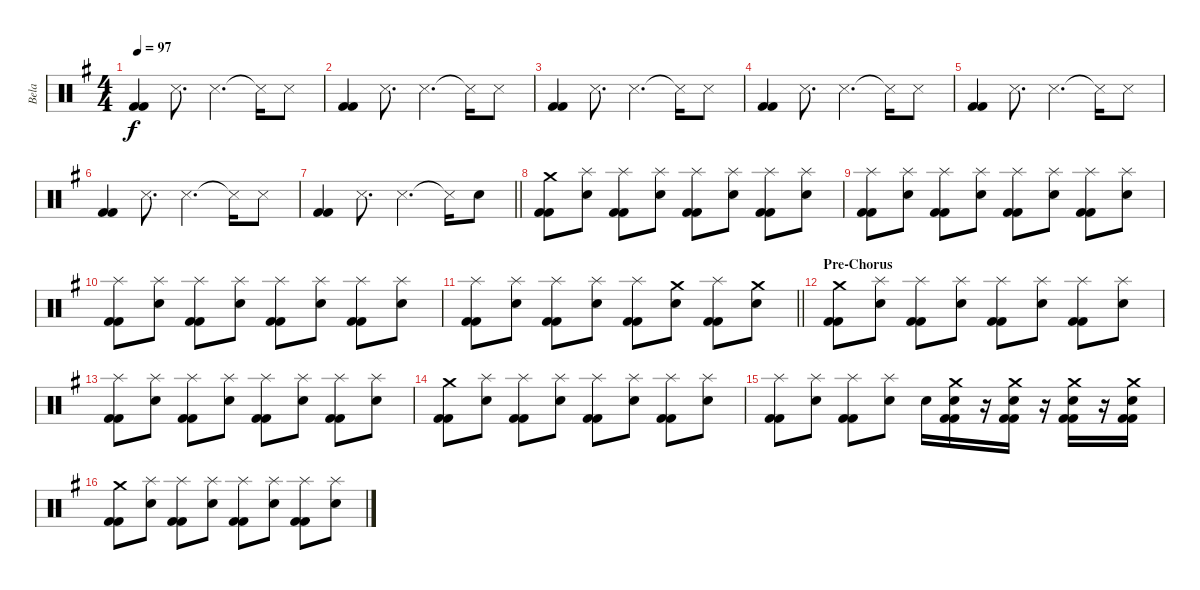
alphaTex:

\track ("Bela" "Bela") {instrument percussion}
\staff {score}
\articulation defaults
\ts (4 4)
\tempo 97
\clef neutral
\ks g
("Kick (hit) 2" "Kick (hit) 2").4{dy f} "Snare (side stick) 3".8{d} "Snare (side stick) 3".4{d} "Snare (side stick) 3"{t}.16 "Snare (side stick) 3".8 |
("Kick (hit) 2" "Kick (hit) 2").4 "Snare (side stick) 3".8{d} "Snare (side stick) 3".4{d} "Snare (side stick) 3"{t}.16 "Snare (side stick) 3".8 |
("Kick (hit) 2" "Kick (hit) 2").4 "Snare (side stick) 3".8{d} "Snare (side stick) 3".4{d} "Snare (side stick) 3"{t}.16 "Snare (side stick) 3".8 |
("Kick (hit) 2" "Kick (hit) 2").4 "Snare (side stick) 3".8{d} "Snare (side stick) 3".4{d} "Snare (side stick) 3"{t}.16 "Snare (side stick) 3".8 |
("Kick (hit) 2" "Kick (hit) 2").4 "Snare (side stick) 3".8{d} "Snare (side stick) 3".4{d} "Snare (side stick) 3"{t}.16 "Snare (side stick) 3".8 |
("Kick (hit) 2" "Kick (hit) 2").4 "Snare (side stick) 3".8{d} "Snare (side stick) 3".4{d} "Snare (side stick) 3"{t}.16 "Snare (side stick) 3".8 |
\barLineRight lightlight
("Kick (hit) 2" "Kick (hit) 2").4 "Snare (side stick) 3".8{d} "Snare (side stick) 3".4{d} "Snare (side stick) 3"{t}.16 "Electric Snare (hit)".8 |
("Crash medium (hit)" "Kick (hit) 2" "Kick (hit) 2").8 ("Splash (hit)" "Electric Snare (hit)").8 ("Splash (hit)" "Kick (hit) 2" "Kick (hit) 2").8 ("Splash (hit)" "Electric Snare (hit)").8 ("Splash (hit)" "Kick (hit) 2" "Kick (hit) 2").8 ("Splash (hit)" "Electric Snare (hit)").8 ("Splash (hit)" "Kick (hit) 2" "Kick (hit) 2").8 ("Splash (hit)" "Electric Snare (hit)").8 |
("Splash (hit)" "Kick (hit) 2" "Kick (hit) 2").8 ("Splash (hit)" "Electric Snare (hit)").8 ("Splash (hit)" "Kick (hit) 2" "Kick (hit) 2").8 ("Splash (hit)" "Electric Snare (hit)").8 ("Splash (hit)" "Kick (hit) 2" "Kick (hit) 2").8 ("Splash (hit)" "Electric Snare (hit)").8 ("Splash (hit)" "Kick (hit) 2" "Kick (hit) 2").8 ("Splash (hit)" "Electric Snare (hit)").8 |
("Splash (hit)" "Kick (hit) 2" "Kick (hit) 2").8 ("Splash (hit)" "Electric Snare (hit)").8 ("Splash (hit)" "Kick (hit) 2" "Kick (hit) 2").8 ("Splash (hit)" "Electric Snare (hit)").8 ("Splash (hit)" "Kick (hit) 2" "Kick (hit) 2").8 ("Splash (hit)" "Electric Snare (hit)").8 ("Splash (hit)" "Kick (hit) 2" "Kick (hit) 2").8 ("Splash (hit)" "Electric Snare (hit)").8 |
\barLineRight lightlight
("Splash (hit)" "Kick (hit) 2" "Kick (hit) 2").8 ("Splash (hit)" "Electric Snare (hit)").8 ("Splash (hit)" "Kick (hit) 2" "Kick (hit) 2").8 ("Splash (hit)" "Electric Snare (hit)").8 ("Splash (hit)" "Kick (hit) 2" "Kick (hit) 2").8 ("Crash medium (hit)" "Electric Snare (hit)").8 ("Splash (hit)" "Kick (hit) 2" "Kick (hit) 2").8 ("Crash medium (hit)" "Electric Snare (hit)").8 |
\section ("" "Pre-Chorus")
("Crash medium (hit)" "Kick (hit) 2" "Kick (hit) 2").8 ("Splash (hit)" "Electric Snare (hit)").8 ("Splash (hit)" "Kick (hit) 2" "Kick (hit) 2").8 ("Splash (hit)" "Electric Snare (hit)").8 ("Splash (hit)" "Kick (hit) 2" "Kick (hit) 2").8 ("Splash (hit)" "Electric Snare (hit)").8 ("Splash (hit)" "Kick (hit) 2" "Kick (hit) 2").8 ("Splash (hit)" "Electric Snare (hit)").8 |
("Splash (hit)" "Kick (hit) 2" "Kick (hit) 2").8 ("Splash (hit)" "Electric Snare (hit)").8 ("Splash (hit)" "Kick (hit) 2" "Kick (hit) 2").8 ("Splash (hit)" "Electric Snare (hit)").8 ("Splash (hit)" "Kick (hit) 2" "Kick (hit) 2").8 ("Splash (hit)" "Electric Snare (hit)").8 ("Splash (hit)" "Kick (hit) 2" "Kick (hit) 2").8 ("Splash (hit)" "Electric Snare (hit)").8 |
("Crash medium (hit)" "Kick (hit) 2" "Kick (hit) 2").8 ("Splash (hit)" "Electric Snare (hit)").8 ("Splash (hit)" "Kick (hit) 2" "Kick (hit) 2").8 ("Splash (hit)" "Electric Snare (hit)").8 ("Splash (hit)" "Kick (hit) 2" "Kick (hit) 2").8 ("Splash (hit)" "Electric Snare (hit)").8 ("Splash (hit)" "Kick (hit) 2" "Kick (hit) 2").8 ("Splash (hit)" "Electric Snare (hit)").8 |
("Splash (hit)" "Kick (hit) 2" "Kick (hit) 2").8 ("Splash (hit)" "Electric Snare (hit)").8 ("Splash (hit)" "Kick (hit) 2" "Kick (hit) 2").8 ("Splash (hit)" "Electric Snare (hit)").8 "Electric Snare (hit)".16 ("Crash medium (hit)" "Electric Snare (hit)" "Kick (hit) 2" "Kick (hit) 2").16 r.16 ("Crash medium (hit)" "Electric Snare (hit)" "Kick (hit) 2" "Kick (hit) 2").16 r.16 ("Crash medium (hit)" "Electric Snare (hit)" "Kick (hit) 2" "Kick (hit) 2").16 r.16 ("Crash medium (hit)" "Electric Snare (hit)" "Kick (hit) 2" "Kick (hit) 2").16 |
("Crash medium (hit)" "Kick (hit) 2" "Kick (hit) 2").8 ("Splash (hit)" "Electric Snare (hit)").8 ("Splash (hit)" "Kick (hit) 2" "Kick (hit) 2").8 ("Splash (hit)" "Electric Snare (hit)").8 ("Splash (hit)" "Kick (hit) 2" "Kick (hit) 2").8 ("Splash (hit)" "Electric Snare (hit)").8 ("Splash (hit)" "Kick (hit) 2" "Kick (hit) 2").8 ("Splash (hit)" "Electric Snare (hit)").8
